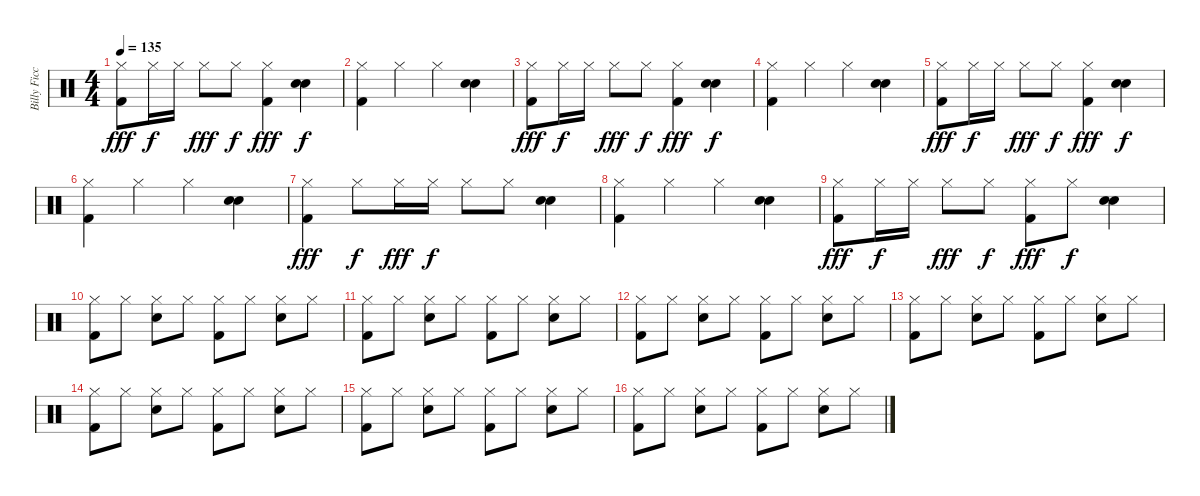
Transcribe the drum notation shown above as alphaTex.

\track ("Billy Ficca" "Billy Ficc") {instrument percussion}
\staff {score}
\articulation defaults
\ts (4 4)
\tempo 135
\clef neutral
\ks c
("Hi-Hat (closed)" "Kick (hit) 2").8{dy fff} "Hi-Hat (closed)".16{dy f} "Hi-Hat (closed)".16 "Hi-Hat (closed)".8{dy fff} "Hi-Hat (closed)".8{dy f} ("Hi-Hat (closed)" "Kick (hit) 2").4{dy fff} ("Electric Snare (hit)" "Electric Snare (hit)").4{dy f} |
("Hi-Hat (closed)" "Kick (hit) 2").4 "Hi-Hat (closed)".4 "Hi-Hat (closed)".4 ("Electric Snare (hit)" "Electric Snare (hit)").4 |
("Hi-Hat (closed)" "Kick (hit) 2").8{dy fff} "Hi-Hat (closed)".16{dy f} "Hi-Hat (closed)".16 "Hi-Hat (closed)".8{dy fff} "Hi-Hat (closed)".8{dy f} ("Hi-Hat (closed)" "Kick (hit) 2").4{dy fff} ("Electric Snare (hit)" "Electric Snare (hit)").4{dy f} |
("Hi-Hat (closed)" "Kick (hit) 2").4 "Hi-Hat (closed)".4 "Hi-Hat (closed)".4 ("Electric Snare (hit)" "Electric Snare (hit)").4 |
("Hi-Hat (closed)" "Kick (hit) 2").8{dy fff} "Hi-Hat (closed)".16{dy f} "Hi-Hat (closed)".16 "Hi-Hat (closed)".8{dy fff} "Hi-Hat (closed)".8{dy f} ("Hi-Hat (closed)" "Kick (hit) 2").4{dy fff} ("Electric Snare (hit)" "Electric Snare (hit)").4{dy f} |
("Hi-Hat (closed)" "Kick (hit) 2").4 "Hi-Hat (closed)".4 "Hi-Hat (closed)".4 ("Electric Snare (hit)" "Electric Snare (hit)").4 |
("Hi-Hat (closed)" "Kick (hit) 2").4{dy fff} "Hi-Hat (closed)".8{dy f} "Hi-Hat (closed)".16{dy fff} "Hi-Hat (closed)".16{dy f} "Hi-Hat (closed)".8 "Hi-Hat (closed)".8 ("Electric Snare (hit)" "Electric Snare (hit)").4 |
("Hi-Hat (closed)" "Kick (hit) 2").4 "Hi-Hat (closed)".4 "Hi-Hat (closed)".4 ("Electric Snare (hit)" "Electric Snare (hit)").4 |
("Hi-Hat (closed)" "Kick (hit) 2").8{dy fff} "Hi-Hat (closed)".16{dy f} "Hi-Hat (closed)".16 "Hi-Hat (closed)".8{dy fff} "Hi-Hat (closed)".8{dy f} ("Hi-Hat (closed)" "Kick (hit) 2").8{dy fff} "Hi-Hat (closed)".8{dy f} ("Electric Snare (hit)" "Electric Snare (hit)").4 |
("Hi-Hat (closed)" "Kick (hit) 2").8 "Hi-Hat (closed)".8 ("Hi-Hat (closed)" "Electric Snare (hit)").8 "Hi-Hat (closed)".8 ("Hi-Hat (closed)" "Kick (hit) 2").8 "Hi-Hat (closed)".8 ("Hi-Hat (closed)" "Electric Snare (hit)").8 "Hi-Hat (closed)".8 |
("Hi-Hat (closed)" "Kick (hit) 2").8 "Hi-Hat (closed)".8 ("Hi-Hat (closed)" "Electric Snare (hit)").8 "Hi-Hat (closed)".8 ("Hi-Hat (closed)" "Kick (hit) 2").8 "Hi-Hat (closed)".8 ("Hi-Hat (closed)" "Electric Snare (hit)").8 "Hi-Hat (closed)".8 |
("Hi-Hat (closed)" "Kick (hit) 2").8 "Hi-Hat (closed)".8 ("Hi-Hat (closed)" "Electric Snare (hit)").8 "Hi-Hat (closed)".8 ("Hi-Hat (closed)" "Kick (hit) 2").8 "Hi-Hat (closed)".8 ("Hi-Hat (closed)" "Electric Snare (hit)").8 "Hi-Hat (closed)".8 |
("Hi-Hat (closed)" "Kick (hit) 2").8 "Hi-Hat (closed)".8 ("Hi-Hat (closed)" "Electric Snare (hit)").8 "Hi-Hat (closed)".8 ("Hi-Hat (closed)" "Kick (hit) 2").8 "Hi-Hat (closed)".8 ("Hi-Hat (closed)" "Electric Snare (hit)").8 "Hi-Hat (closed)".8 |
("Hi-Hat (closed)" "Kick (hit) 2").8 "Hi-Hat (closed)".8 ("Hi-Hat (closed)" "Electric Snare (hit)").8 "Hi-Hat (closed)".8 ("Hi-Hat (closed)" "Kick (hit) 2").8 "Hi-Hat (closed)".8 ("Hi-Hat (closed)" "Electric Snare (hit)").8 "Hi-Hat (closed)".8 |
("Hi-Hat (closed)" "Kick (hit) 2").8 "Hi-Hat (closed)".8 ("Hi-Hat (closed)" "Electric Snare (hit)").8 "Hi-Hat (closed)".8 ("Hi-Hat (closed)" "Kick (hit) 2").8 "Hi-Hat (closed)".8 ("Hi-Hat (closed)" "Electric Snare (hit)").8 "Hi-Hat (closed)".8 |
("Hi-Hat (closed)" "Kick (hit) 2").8 "Hi-Hat (closed)".8 ("Hi-Hat (closed)" "Electric Snare (hit)").8 "Hi-Hat (closed)".8 ("Hi-Hat (closed)" "Kick (hit) 2").8 "Hi-Hat (closed)".8 ("Hi-Hat (closed)" "Electric Snare (hit)").8 "Hi-Hat (closed)".8
